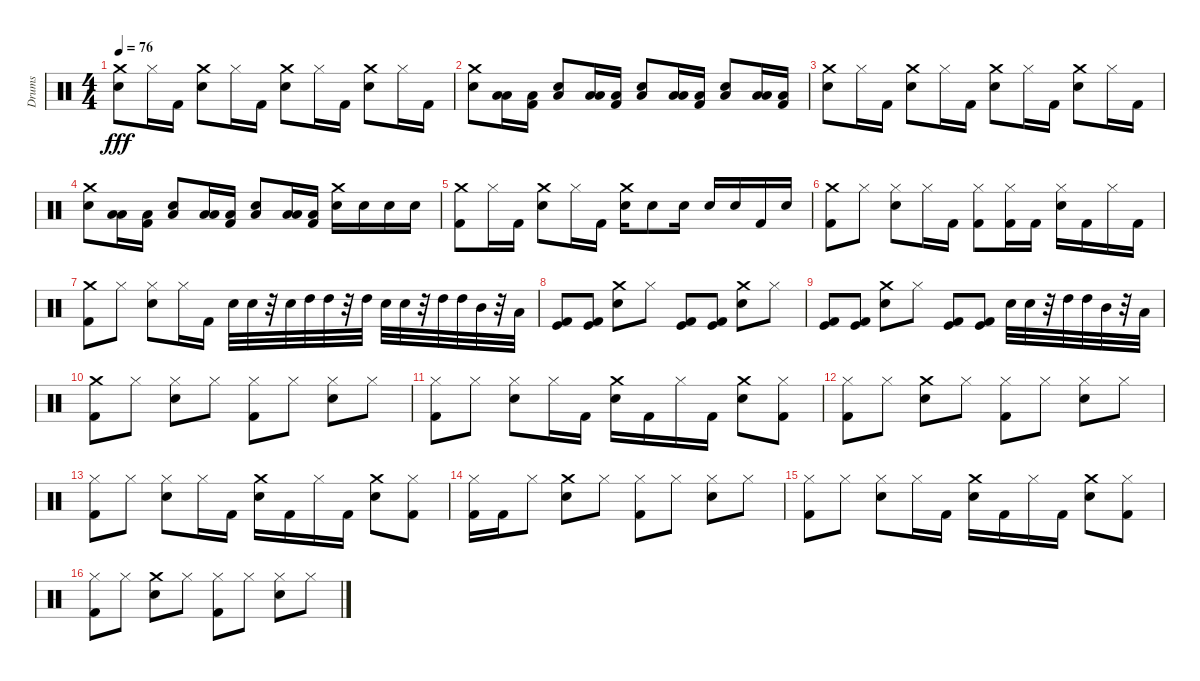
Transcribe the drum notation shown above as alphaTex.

\track ("Drums" "Drums") {instrument percussion}
\staff {score}
\articulation defaults
\ts (4 4)
\tempo 76
\clef neutral
\ks c
("Crash medium (hit)" "Snare (hit) 2").8{dy fff} "Hi-Hat (closed)".16 "Kick (hit) 2".16 ("Snare (hit) 2" "Crash medium (hit)").8 "Hi-Hat (closed)".16 "Kick (hit) 2".16 ("Snare (hit) 2" "Crash medium (hit)").8 "Hi-Hat (closed)".16 "Kick (hit) 2".16 ("Snare (hit) 2" "Crash medium (hit)").8 "Hi-Hat (closed)".16 "Kick (hit) 2".16 |
("Snare (hit) 2" "Crash medium (hit)").8 ("Low Floor Tom (hit)" "Low Tom (hit)").16 ("Kick (hit) 2" "Low Floor Tom (hit)").16 ("Snare (hit) 2" "Low Tom (hit)").8 ("Low Tom (hit)" "Low Floor Tom (hit)").16 ("Kick (hit) 2" "Low Floor Tom (hit)").16 ("Snare (hit) 2" "Low Tom (hit)").8 ("Low Tom (hit)" "Low Floor Tom (hit)").16 ("Kick (hit) 2" "Low Floor Tom (hit)").16 ("Snare (hit) 2" "Low Tom (hit)").8 ("Low Tom (hit)" "Low Floor Tom (hit)").16 ("Kick (hit) 2" "Low Floor Tom (hit)").16 |
("Crash medium (hit)" "Snare (hit) 2").8 "Hi-Hat (closed)".16 "Kick (hit) 2".16 ("Snare (hit) 2" "Crash medium (hit)").8 "Hi-Hat (closed)".16 "Kick (hit) 2".16 ("Snare (hit) 2" "Crash medium (hit)").8 "Hi-Hat (closed)".16 "Kick (hit) 2".16 ("Snare (hit) 2" "Crash medium (hit)").8 "Hi-Hat (closed)".16 "Kick (hit) 2".16 |
("Snare (hit) 2" "Crash medium (hit)").8 ("Low Floor Tom (hit)" "Low Tom (hit)").16 ("Kick (hit) 2" "Low Floor Tom (hit)").16 ("Snare (hit) 2" "Low Tom (hit)").8 ("Low Tom (hit)" "Low Floor Tom (hit)").16 ("Kick (hit) 2" "Low Floor Tom (hit)").16 ("Snare (hit) 2" "Low Tom (hit)").8 ("Low Tom (hit)" "Low Floor Tom (hit)").16 ("Kick (hit) 2" "Low Floor Tom (hit)").16 ("Snare (hit) 2" "Crash medium (hit)").16 "Snare (hit) 2".16 "Snare (hit) 2".16 "Snare (hit) 2".16 |
("Crash medium (hit)" "Kick (hit) 2").8 "Hi-Hat (closed)".16 "Kick (hit) 2".16 ("Snare (hit) 2" "Crash medium (hit)").8 "Hi-Hat (closed)".16 "Kick (hit) 2".16 ("Crash medium (hit)" "Snare (hit) 2").16 "Snare (hit) 2".8 "Snare (hit) 2".16 "Snare (hit) 2".16 "Snare (hit) 2".16 "Kick (hit) 2".16 "Snare (hit) 2".16 |
("Kick (hit) 2" "Crash medium (hit)").8 "Hi-Hat (closed)".8 ("Snare (hit) 2" "Hi-Hat (closed)").8 "Hi-Hat (closed)".16 "Kick (hit) 2".16 ("Kick (hit) 2" "Hi-Hat (closed)").8 ("Kick (hit) 2" "Hi-Hat (closed)").16 "Kick (hit) 2".16 ("Snare (hit) 2" "Hi-Hat (closed)").16 "Kick (hit) 2".16 "Hi-Hat (closed)".16 "Kick (hit) 2".16 |
("Kick (hit) 2" "Crash medium (hit)").8 "Hi-Hat (closed)".8 ("Snare (hit) 2" "Hi-Hat (closed)").8 "Hi-Hat (closed)".16 "Kick (hit) 2".16 "Snare (hit) 2".32 "Snare (hit) 2".32 r.32 "Snare (hit) 2".32 "High Tom (hit)".32 "High Tom (hit)".32 r.32 "High Tom (hit)".32 "Snare (hit) 2".32 "Snare (hit) 2".32 r.32 "High Tom (hit)".32 "High Tom (hit)".32 "Mid Tom (hit)".32 r.32 "Low Tom (hit)".32 |
("Kick (hit) 2" "Kick (hit)").8 ("Kick (hit) 2" "Kick (hit)").8 ("Snare (hit) 2" "Crash medium (hit)").8 "Hi-Hat (closed)".8 ("Kick (hit) 2" "Kick (hit)").8 ("Kick (hit) 2" "Kick (hit)").8 ("Snare (hit) 2" "Crash medium (hit)").8 "Hi-Hat (closed)".8 |
("Kick (hit) 2" "Kick (hit)").8 ("Kick (hit) 2" "Kick (hit)").8 ("Snare (hit) 2" "Crash medium (hit)").8 "Hi-Hat (closed)".8 ("Kick (hit) 2" "Kick (hit)").8 ("Kick (hit) 2" "Kick (hit)").8 "Snare (hit) 2".32 "Snare (hit) 2".32 r.32 "High Tom (hit)".32 "High Tom (hit)".32 "Mid Tom (hit)".32 r.32 "Low Tom (hit)".32 |
("Kick (hit) 2" "Crash medium (hit)").8 "Hi-Hat (closed)".8 ("Hi-Hat (closed)" "Snare (hit) 2").8 "Hi-Hat (closed)".8 ("Hi-Hat (closed)" "Kick (hit) 2").8 "Hi-Hat (closed)".8 ("Hi-Hat (closed)" "Snare (hit) 2").8 "Hi-Hat (closed)".8 |
("Hi-Hat (closed)" "Kick (hit) 2").8 "Hi-Hat (closed)".8 ("Hi-Hat (closed)" "Snare (hit) 2").8 "Hi-Hat (closed)".16 "Kick (hit) 2".16 ("Snare (hit) 2" "Crash medium (hit)").16 "Kick (hit) 2".16 "Hi-Hat (closed)".16 "Kick (hit) 2".16 ("Snare (hit) 2" "Crash medium (hit)").8 ("Kick (hit) 2" "Hi-Hat (closed)").8 |
("Hi-Hat (closed)" "Kick (hit) 2").8 "Hi-Hat (closed)".8 ("Snare (hit) 2" "Crash medium (hit)").8 "Hi-Hat (closed)".8 ("Hi-Hat (closed)" "Kick (hit) 2").8 "Hi-Hat (closed)".8 ("Hi-Hat (closed)" "Snare (hit) 2").8 "Hi-Hat (closed)".8 |
("Hi-Hat (closed)" "Kick (hit) 2").8 "Hi-Hat (closed)".8 ("Hi-Hat (closed)" "Snare (hit) 2").8 "Hi-Hat (closed)".16 "Kick (hit) 2".16 ("Snare (hit) 2" "Crash medium (hit)").16 "Kick (hit) 2".16 "Hi-Hat (closed)".16 "Kick (hit) 2".16 ("Snare (hit) 2" "Crash medium (hit)").8 ("Hi-Hat (closed)" "Kick (hit) 2").8 |
("Hi-Hat (closed)" "Kick (hit) 2").16 "Kick (hit) 2".16 "Hi-Hat (closed)".8 ("Snare (hit) 2" "Crash medium (hit)").8 "Hi-Hat (closed)".8 ("Hi-Hat (closed)" "Kick (hit) 2").8 "Hi-Hat (closed)".8 ("Hi-Hat (closed)" "Snare (hit) 2").8 "Hi-Hat (closed)".8 |
("Hi-Hat (closed)" "Kick (hit) 2").8 "Hi-Hat (closed)".8 ("Hi-Hat (closed)" "Snare (hit) 2").8 "Hi-Hat (closed)".16 "Kick (hit) 2".16 ("Snare (hit) 2" "Crash medium (hit)").16 "Kick (hit) 2".16 "Hi-Hat (closed)".16 "Kick (hit) 2".16 ("Snare (hit) 2" "Crash medium (hit)").8 ("Kick (hit) 2" "Hi-Hat (closed)").8 |
("Hi-Hat (closed)" "Kick (hit) 2").8 "Hi-Hat (closed)".8 ("Snare (hit) 2" "Crash medium (hit)").8 "Hi-Hat (closed)".8 ("Hi-Hat (closed)" "Kick (hit) 2").8 "Hi-Hat (closed)".8 ("Hi-Hat (closed)" "Snare (hit) 2").8 "Hi-Hat (closed)".8
